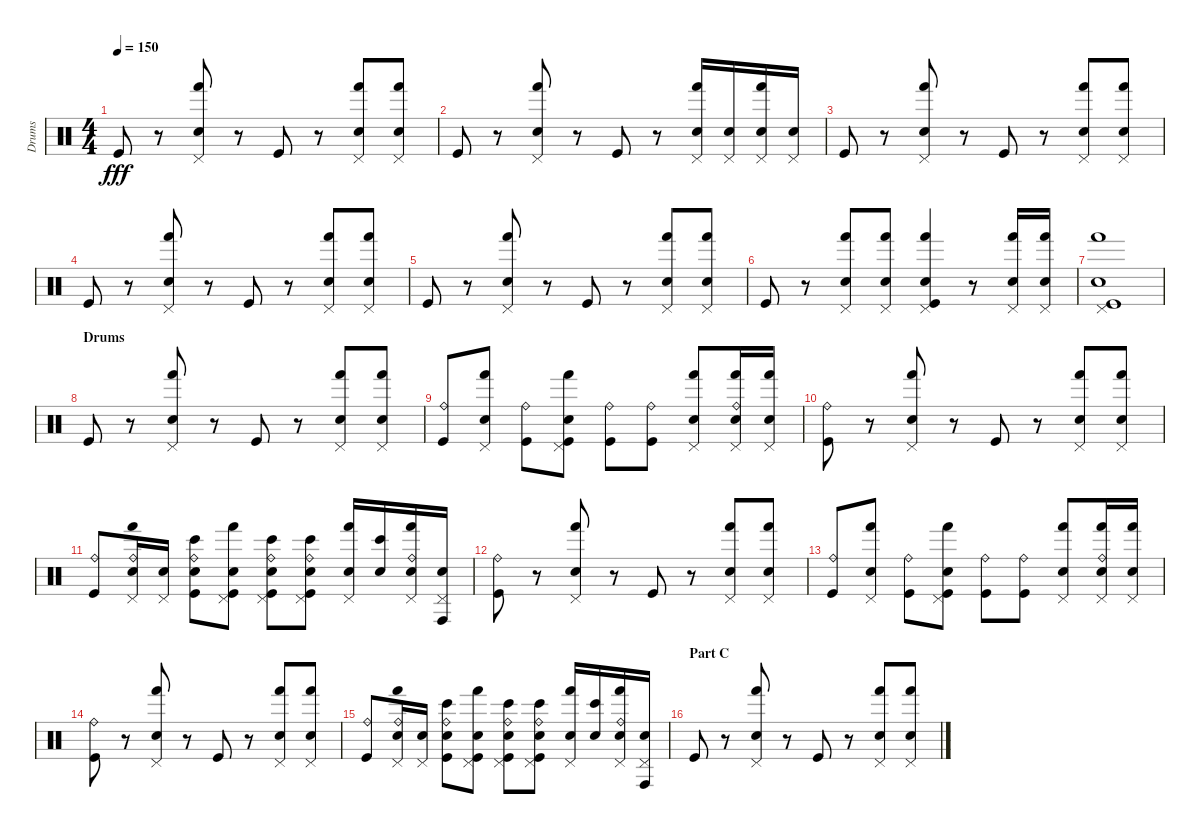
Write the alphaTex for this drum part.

\track ("Drums" "Drums") {instrument percussion}
\staff {score}
\articulation defaults
\ts (4 4)
\tempo 150
\clef neutral
\ks c "Kick (hit)".8{dy fff}
r.8 ("Pedal Hi-Hat (hit)" "Hand (hit)" "Electric Snare (hit)").8 r.8 "Kick (hit)".8 r.8 ("Pedal Hi-Hat (hit)" "Hand (hit)" "Electric Snare (hit)").8 ("Pedal Hi-Hat (hit)" "Hand (hit)" "Electric Snare (hit)").8 |
"Kick (hit)".8 r.8 ("Pedal Hi-Hat (hit)" "Hand (hit)" "Electric Snare (hit)").8 r.8 "Kick (hit)".8 r.8 ("Pedal Hi-Hat (hit)" "Hand (hit)" "Electric Snare (hit)").16 ("Pedal Hi-Hat (hit)" "Electric Snare (hit)").16 ("Pedal Hi-Hat (hit)" "Hand (hit)" "Electric Snare (hit)").16 ("Pedal Hi-Hat (hit)" "Electric Snare (hit)").16 |
"Kick (hit)".8 r.8 ("Pedal Hi-Hat (hit)" "Hand (hit)" "Electric Snare (hit)").8 r.8 "Kick (hit)".8 r.8 ("Pedal Hi-Hat (hit)" "Hand (hit)" "Electric Snare (hit)").8 ("Pedal Hi-Hat (hit)" "Hand (hit)" "Electric Snare (hit)").8 |
"Kick (hit)".8 r.8 ("Pedal Hi-Hat (hit)" "Hand (hit)" "Electric Snare (hit)").8 r.8 "Kick (hit)".8 r.8 ("Pedal Hi-Hat (hit)" "Hand (hit)" "Electric Snare (hit)").8 ("Pedal Hi-Hat (hit)" "Hand (hit)" "Electric Snare (hit)").8 |
"Kick (hit)".8 r.8 ("Pedal Hi-Hat (hit)" "Hand (hit)" "Electric Snare (hit)").8 r.8 "Kick (hit)".8 r.8 ("Pedal Hi-Hat (hit)" "Hand (hit)" "Electric Snare (hit)").8 ("Pedal Hi-Hat (hit)" "Hand (hit)" "Electric Snare (hit)").8 |
"Kick (hit)".8 r.8 ("Pedal Hi-Hat (hit)" "Hand (hit)" "Electric Snare (hit)").8 ("Pedal Hi-Hat (hit)" "Hand (hit)" "Electric Snare (hit)").8 ("Pedal Hi-Hat (hit)" "Hand (hit)" "Electric Snare (hit)" "Kick (hit)").4 r.8 ("Pedal Hi-Hat (hit)" "Hand (hit)" "Electric Snare (hit)").16 ("Pedal Hi-Hat (hit)" "Hand (hit)" "Electric Snare (hit)").16 |
("Pedal Hi-Hat (hit)" "Hand (hit)" "Electric Snare (hit)" "Kick (hit)").1 |
\section ("" "Drums")
"Kick (hit)".8 r.8 ("Pedal Hi-Hat (hit)" "Hand (hit)" "Electric Snare (hit)").8 r.8 "Kick (hit)".8 r.8 ("Pedal Hi-Hat (hit)" "Hand (hit)" "Electric Snare (hit)").8 ("Pedal Hi-Hat (hit)" "Hand (hit)" "Electric Snare (hit)").8 |
("Ride (bell)" "Kick (hit)").8 ("Pedal Hi-Hat (hit)" "Hand (hit)" "Electric Snare (hit)").8 ("Ride (bell)" "Kick (hit)").8 ("Pedal Hi-Hat (hit)" "Hand (hit)" "Electric Snare (hit)" "Kick (hit)").8 ("Ride (bell)" "Kick (hit)").8 ("Ride (bell)" "Kick (hit)").8 ("Pedal Hi-Hat (hit)" "Hand (hit)" "Electric Snare (hit)").8 ("Ride (bell)" "Pedal Hi-Hat (hit)" "Hand (hit)" "Electric Snare (hit)").16 ("Pedal Hi-Hat (hit)" "Hand (hit)" "Electric Snare (hit)").16 |
("Ride (bell)" "Kick (hit)").8 r.8 ("Pedal Hi-Hat (hit)" "Hand (hit)" "Electric Snare (hit)").8 r.8 "Kick (hit)".8 r.8 ("Pedal Hi-Hat (hit)" "Hand (hit)" "Electric Snare (hit)").8 ("Pedal Hi-Hat (hit)" "Hand (hit)" "Electric Snare (hit)").8 |
("Ride (bell)" "Kick (hit)").8 ("Ride (bell)" "Pedal Hi-Hat (hit)" "Hand (hit)" "Electric Snare (hit)").16 ("Pedal Hi-Hat (hit)" "Electric Snare (hit)").16 ("Ride (bell)" "Bongo High (hit)" "Electric Snare (hit)" "Kick (hit)").8 ("Pedal Hi-Hat (hit)" "Hand (hit)" "Electric Snare (hit)" "Kick (hit)").8 ("Ride (bell)" "Pedal Hi-Hat (hit)" "Bongo High (hit)" "Electric Snare (hit)" "Kick (hit)").8 ("Ride (bell)" "Pedal Hi-Hat (hit)" "Bongo High (hit)" "Electric Snare (hit)" "Kick (hit)").8 ("Pedal Hi-Hat (hit)" "Hand (hit)" "Electric Snare (hit)").16 ("Bongo High (hit)" "Electric Snare (hit)").16 ("Ride (bell)" "Pedal Hi-Hat (hit)" "Hand (hit)" "Electric Snare (hit)").16 ("Pedal Hi-Hat (hit)" "Conga high (hit)" "Electric Snare (hit)").16 |
("Ride (bell)" "Kick (hit)").8 r.8 ("Pedal Hi-Hat (hit)" "Hand (hit)" "Electric Snare (hit)").8 r.8 "Kick (hit)".8 r.8 ("Pedal Hi-Hat (hit)" "Hand (hit)" "Electric Snare (hit)").8 ("Pedal Hi-Hat (hit)" "Hand (hit)" "Electric Snare (hit)").8 |
("Ride (bell)" "Kick (hit)").8 ("Pedal Hi-Hat (hit)" "Hand (hit)" "Electric Snare (hit)").8 ("Ride (bell)" "Kick (hit)").8 ("Pedal Hi-Hat (hit)" "Hand (hit)" "Electric Snare (hit)" "Kick (hit)").8 ("Ride (bell)" "Kick (hit)").8 ("Ride (bell)" "Kick (hit)").8 ("Pedal Hi-Hat (hit)" "Hand (hit)" "Electric Snare (hit)").8 ("Ride (bell)" "Pedal Hi-Hat (hit)" "Hand (hit)" "Electric Snare (hit)").16 ("Pedal Hi-Hat (hit)" "Hand (hit)" "Electric Snare (hit)").16 |
("Ride (bell)" "Kick (hit)").8 r.8 ("Pedal Hi-Hat (hit)" "Hand (hit)" "Electric Snare (hit)").8 r.8 "Kick (hit)".8 r.8 ("Pedal Hi-Hat (hit)" "Hand (hit)" "Electric Snare (hit)").8 ("Pedal Hi-Hat (hit)" "Hand (hit)" "Electric Snare (hit)").8 |
("Ride (bell)" "Kick (hit)").8 ("Ride (bell)" "Pedal Hi-Hat (hit)" "Hand (hit)" "Electric Snare (hit)").16 ("Pedal Hi-Hat (hit)" "Electric Snare (hit)").16 ("Ride (bell)" "Bongo High (hit)" "Electric Snare (hit)" "Kick (hit)").8 ("Pedal Hi-Hat (hit)" "Hand (hit)" "Electric Snare (hit)" "Kick (hit)").8 ("Ride (bell)" "Pedal Hi-Hat (hit)" "Bongo High (hit)" "Electric Snare (hit)" "Kick (hit)").8 ("Ride (bell)" "Pedal Hi-Hat (hit)" "Bongo High (hit)" "Electric Snare (hit)" "Kick (hit)").8 ("Pedal Hi-Hat (hit)" "Hand (hit)" "Electric Snare (hit)").16 ("Bongo High (hit)" "Electric Snare (hit)").16 ("Ride (bell)" "Pedal Hi-Hat (hit)" "Hand (hit)" "Electric Snare (hit)").16 ("Pedal Hi-Hat (hit)" "Conga high (hit)" "Electric Snare (hit)").16 |
\section ("" "Part C")
"Kick (hit)".8 r.8 ("Pedal Hi-Hat (hit)" "Hand (hit)" "Electric Snare (hit)").8 r.8 "Kick (hit)".8 r.8 ("Pedal Hi-Hat (hit)" "Hand (hit)" "Electric Snare (hit)").8 ("Pedal Hi-Hat (hit)" "Hand (hit)" "Electric Snare (hit)").8
